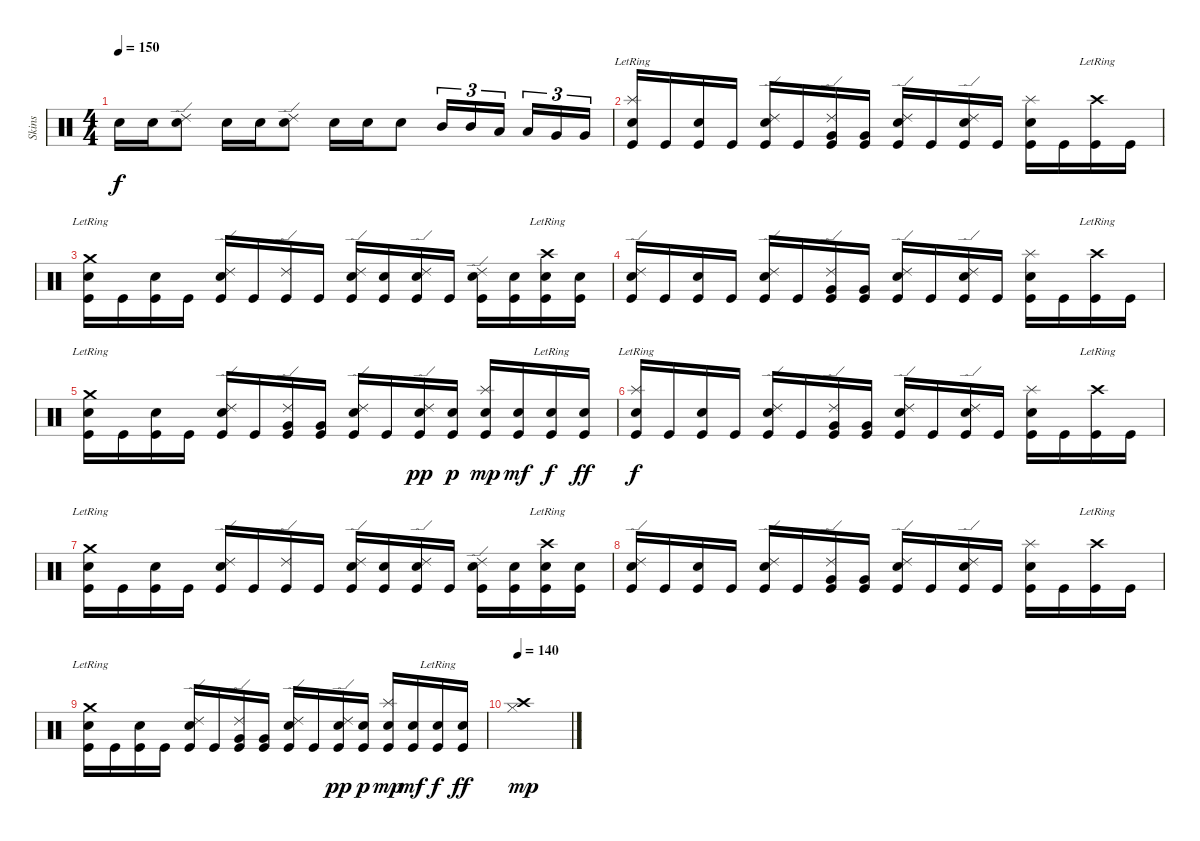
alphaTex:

\track ("Skins" "Skins") {instrument percussion}
\staff {score}
\articulation defaults
\ts (4 4)
\tempo 150
\clef neutral
\ks c "Snare (hit) 2".16{dy f} "Snare (hit) 2".16
("Snare (hit) 2" "Ride (edge) 2").8 "Electric Snare (hit)".16 "Electric Snare (hit)".16 ("Electric Snare (hit)" "Ride (edge) 2").8 "Snare (hit) 2".16 "Snare (hit) 2".16 "Snare (hit) 2".8 "Mid Tom (hit)".16{tu (3 2)} "Mid Tom (hit)".16{tu (3 2)} "Low Tom (hit)".16{tu (3 2)} "Low Tom (hit)".16{tu (3 2)} "Very Low Tom (hit)".16{tu (3 2)} "Very Low Tom (hit)".16{tu (3 2)} |
("Snare (hit) 2" "Splash (hit)"{lr} "Kick (hit)").16 "Kick (hit)".16 ("Snare (hit) 2" "Kick (hit)").16 "Kick (hit)".16 ("Snare (hit) 2" "Ride (edge) 2" "Kick (hit)").16 "Kick (hit)".16 ("Very Low Tom (hit)" "Ride (edge) 2" "Kick (hit)").16 ("Very Low Tom (hit)" "Kick (hit)").16 ("Snare (hit) 2" "Ride (edge) 2" "Kick (hit)").16 "Kick (hit)".16 ("Snare (hit) 2" "Ride (edge) 2" "Kick (hit)").16 "Kick (hit)".16 ("Snare (hit) 2" "Splash (hit)" "Kick (hit)").16 "Kick (hit)".16 ("Crash high (hit)"{lr} "Kick (hit)").16 "Kick (hit)".16 |
("Snare (hit) 2" "Crash medium (hit)"{lr} "Kick (hit)").16 "Kick (hit)".16 ("Snare (hit) 2" "Kick (hit)").16 "Kick (hit)".16 ("Snare (hit) 2" "Ride (edge) 2" "Kick (hit)").16 "Kick (hit)".16 ("Ride (edge) 2" "Kick (hit)").16 "Kick (hit)".16 ("Electric Snare (hit)" "Ride (edge) 2" "Kick (hit)").16 ("Snare (hit) 2" "Kick (hit)").16 ("Electric Snare (hit)" "Ride (edge) 2" "Kick (hit)").16 "Kick (hit)".16 ("Electric Snare (hit)" "Ride (edge) 2" "Kick (hit)").16 ("Snare (hit) 2" "Kick (hit)").16 ("Electric Snare (hit)" "Crash high (hit)"{lr} "Kick (hit)").16 ("Electric Snare (hit)" "Kick (hit)").16 |
("Snare (hit) 2" "Ride (edge) 2" "Kick (hit)").16 "Kick (hit)".16 ("Snare (hit) 2" "Kick (hit)").16 "Kick (hit)".16 ("Snare (hit) 2" "Ride (edge) 2" "Kick (hit)").16 "Kick (hit)".16 ("Very Low Tom (hit)" "Ride (edge) 2" "Kick (hit)").16 ("Very Low Tom (hit)" "Kick (hit)").16 ("Snare (hit) 2" "Ride (edge) 2" "Kick (hit)").16 "Kick (hit)".16 ("Snare (hit) 2" "Ride (edge) 2" "Kick (hit)").16 "Kick (hit)".16 ("Snare (hit) 2" "Splash (hit)" "Kick (hit)").16 "Kick (hit)".16 ("Crash high (hit)"{lr} "Kick (hit)").16 "Kick (hit)".16 |
("Snare (hit) 2" "Crash medium (hit)"{lr} "Kick (hit)").16 "Kick (hit)".16 ("Snare (hit) 2" "Kick (hit)").16 "Kick (hit)".16 ("Snare (hit) 2" "Ride (edge) 2" "Kick (hit)").16 "Kick (hit)".16 ("Very Low Tom (hit)" "Ride (edge) 2" "Kick (hit)").16 ("Very Low Tom (hit)" "Kick (hit)").16 ("Snare (hit) 2" "Ride (edge) 2" "Kick (hit)").16 "Kick (hit)".16 ("Electric Snare (hit)" "Ride (edge) 2" "Kick (hit)").16{dy pp} ("Electric Snare (hit)" "Kick (hit)").16{dy p} ("Electric Snare (hit)" "Splash (hit)" "Kick (hit)").16{dy mp} ("Electric Snare (hit)" "Kick (hit)").16{dy mf} ("Electric Snare (hit)"{lr} "Kick (hit)").16{dy f} ("Electric Snare (hit)" "Kick (hit)").16{dy ff} |
("Snare (hit) 2" "Splash (hit)"{lr} "Kick (hit)").16{dy f} "Kick (hit)".16 ("Snare (hit) 2" "Kick (hit)").16 "Kick (hit)".16 ("Snare (hit) 2" "Ride (edge) 2" "Kick (hit)").16 "Kick (hit)".16 ("Very Low Tom (hit)" "Ride (edge) 2" "Kick (hit)").16 ("Very Low Tom (hit)" "Kick (hit)").16 ("Snare (hit) 2" "Ride (edge) 2" "Kick (hit)").16 "Kick (hit)".16 ("Snare (hit) 2" "Ride (edge) 2" "Kick (hit)").16 "Kick (hit)".16 ("Snare (hit) 2" "Splash (hit)" "Kick (hit)").16 "Kick (hit)".16 ("Crash high (hit)"{lr} "Kick (hit)").16 "Kick (hit)".16 |
("Snare (hit) 2" "Crash medium (hit)"{lr} "Kick (hit)").16 "Kick (hit)".16 ("Snare (hit) 2" "Kick (hit)").16 "Kick (hit)".16 ("Snare (hit) 2" "Ride (edge) 2" "Kick (hit)").16 "Kick (hit)".16 ("Ride (edge) 2" "Kick (hit)").16 "Kick (hit)".16 ("Electric Snare (hit)" "Ride (edge) 2" "Kick (hit)").16 ("Snare (hit) 2" "Kick (hit)").16 ("Electric Snare (hit)" "Ride (edge) 2" "Kick (hit)").16 "Kick (hit)".16 ("Electric Snare (hit)" "Ride (edge) 2" "Kick (hit)").16 ("Snare (hit) 2" "Kick (hit)").16 ("Electric Snare (hit)" "Crash high (hit)"{lr} "Kick (hit)").16 ("Electric Snare (hit)" "Kick (hit)").16 |
("Snare (hit) 2" "Ride (edge) 2" "Kick (hit)").16 "Kick (hit)".16 ("Snare (hit) 2" "Kick (hit)").16 "Kick (hit)".16 ("Snare (hit) 2" "Ride (edge) 2" "Kick (hit)").16 "Kick (hit)".16 ("Very Low Tom (hit)" "Ride (edge) 2" "Kick (hit)").16 ("Very Low Tom (hit)" "Kick (hit)").16 ("Snare (hit) 2" "Ride (edge) 2" "Kick (hit)").16 "Kick (hit)".16 ("Snare (hit) 2" "Ride (edge) 2" "Kick (hit)").16 "Kick (hit)".16 ("Snare (hit) 2" "Splash (hit)" "Kick (hit)").16 "Kick (hit)".16 ("Crash high (hit)"{lr} "Kick (hit)").16 "Kick (hit)".16 |
("Snare (hit) 2" "Crash medium (hit)"{lr} "Kick (hit)").16 "Kick (hit)".16 ("Snare (hit) 2" "Kick (hit)").16 "Kick (hit)".16 ("Snare (hit) 2" "Ride (edge) 2" "Kick (hit)").16 "Kick (hit)".16 ("Very Low Tom (hit)" "Ride (edge) 2" "Kick (hit)").16 ("Very Low Tom (hit)" "Kick (hit)").16 ("Snare (hit) 2" "Ride (edge) 2" "Kick (hit)").16 "Kick (hit)".16 ("Electric Snare (hit)" "Ride (edge) 2" "Kick (hit)").16{dy pp} ("Electric Snare (hit)" "Kick (hit)").16{dy p} ("Electric Snare (hit)" "Splash (hit)" "Kick (hit)").16{dy mp} ("Electric Snare (hit)" "Kick (hit)").16{dy mf} ("Electric Snare (hit)"{lr} "Kick (hit)").16{dy f} ("Electric Snare (hit)" "Kick (hit)").16{dy ff} |
\tempo 140
("Crash high (hit)" "Hi-Hat (closed)").1{dy mp}
